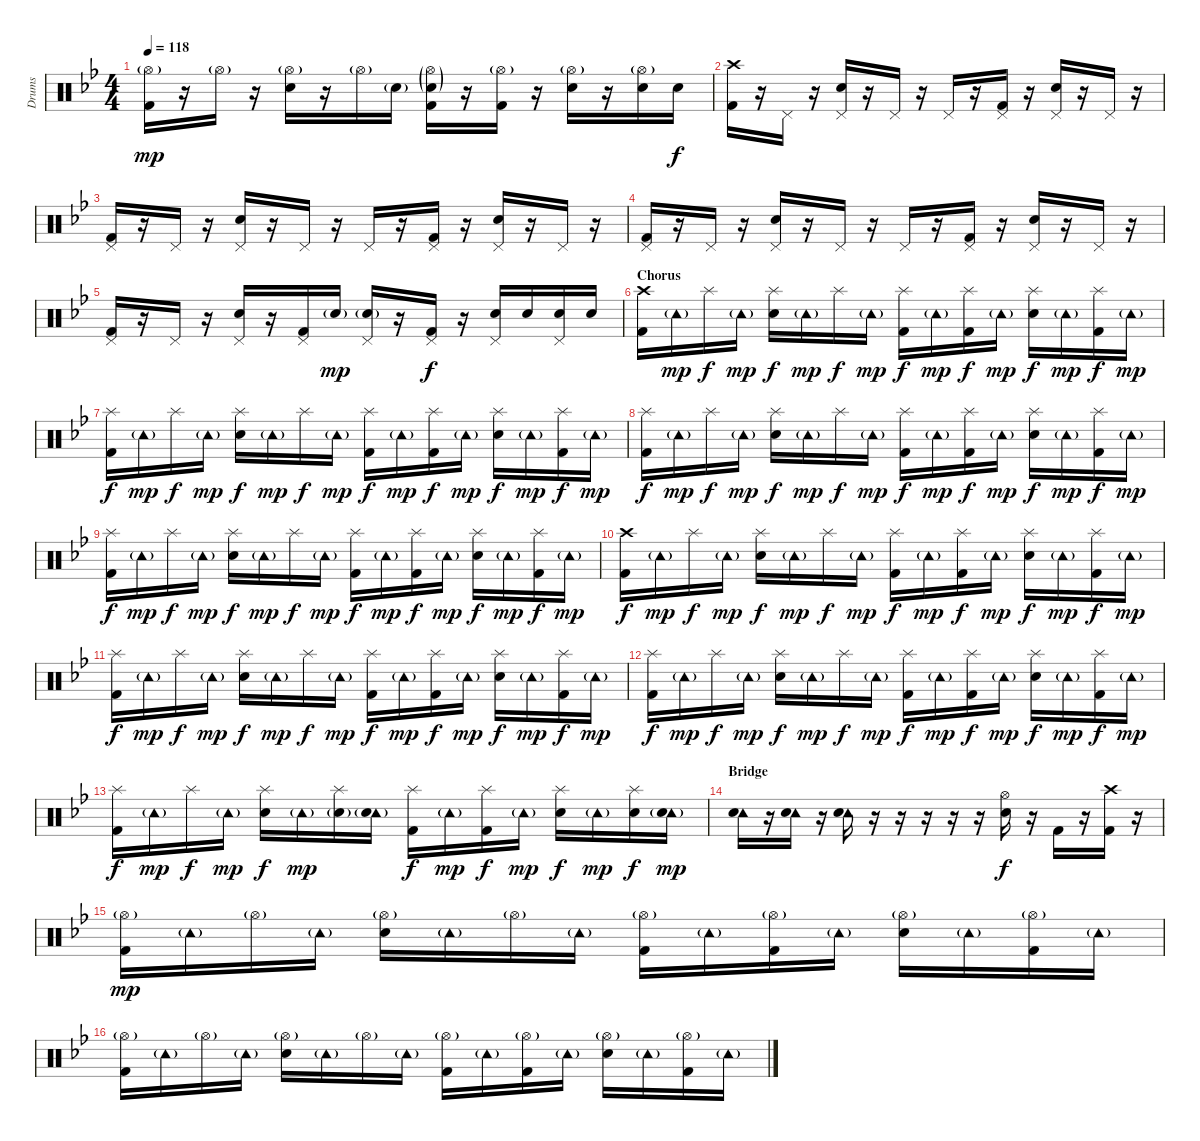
\track ("Drums" "Drums") {instrument percussion}
\staff {score}
\articulation defaults
\ts (4 4)
\tempo 118
\clef neutral
\ks bb
("Hi-Hat (open)"{g} "Kick (hit) 2").16{dy mp} r.16 "Hi-Hat (open)"{g}.16 r.16 ("Hi-Hat (open)"{g} "Electric Snare (hit)").16 r.16 "Hi-Hat (open)"{g}.16 "Electric Snare (hit)"{g}.16 ("Hi-Hat (open)"{g} "Electric Snare (hit)"{g} "Kick (hit) 2").16 r.16 ("Hi-Hat (open)"{g} "Kick (hit) 2").16 r.16 ("Hi-Hat (open)"{g} "Electric Snare (hit)").16 r.16 ("Hi-Hat (open)"{g} "Electric Snare (hit)").16 "Electric Snare (hit)".16{dy f} |
("Crash high (hit)" "Kick (hit) 2").16 r.16 "Pedal Hi-Hat (hit)".16 r.16 ("Pedal Hi-Hat (hit)" "Electric Snare (hit)").16 r.16 "Pedal Hi-Hat (hit)".16 r.16 "Pedal Hi-Hat (hit)".16 r.16 ("Pedal Hi-Hat (hit)" "Kick (hit) 2").16 r.16 ("Pedal Hi-Hat (hit)" "Electric Snare (hit)").16 r.16 "Pedal Hi-Hat (hit)".16 r.16 |
("Pedal Hi-Hat (hit)" "Kick (hit) 2").16 r.16 "Pedal Hi-Hat (hit)".16 r.16 ("Pedal Hi-Hat (hit)" "Electric Snare (hit)").16 r.16 "Pedal Hi-Hat (hit)".16 r.16 "Pedal Hi-Hat (hit)".16 r.16 ("Pedal Hi-Hat (hit)" "Kick (hit) 2").16 r.16 ("Pedal Hi-Hat (hit)" "Electric Snare (hit)").16 r.16 "Pedal Hi-Hat (hit)".16 r.16 |
("Pedal Hi-Hat (hit)" "Kick (hit) 2").16 r.16 "Pedal Hi-Hat (hit)".16 r.16 ("Pedal Hi-Hat (hit)" "Electric Snare (hit)").16 r.16 "Pedal Hi-Hat (hit)".16 r.16 "Pedal Hi-Hat (hit)".16 r.16 ("Pedal Hi-Hat (hit)" "Kick (hit) 2").16 r.16 ("Pedal Hi-Hat (hit)" "Electric Snare (hit)").16 r.16 "Pedal Hi-Hat (hit)".16 r.16 |
("Pedal Hi-Hat (hit)" "Kick (hit) 2").16 r.16 "Pedal Hi-Hat (hit)".16 r.16 ("Pedal Hi-Hat (hit)" "Electric Snare (hit)").16 r.16 ("Pedal Hi-Hat (hit)" "Kick (hit) 2").16 "Electric Snare (hit)"{g}.16{dy mp} ("Pedal Hi-Hat (hit)" "Electric Snare (hit)"{g}).16 r.16 ("Pedal Hi-Hat (hit)" "Kick (hit) 2").16{dy f} r.16 ("Pedal Hi-Hat (hit)" "Electric Snare (hit)").16 "Electric Snare (hit)".16 ("Pedal Hi-Hat (hit)" "Electric Snare (hit)").16 "Electric Snare (hit)".16 |
\section ("" "Chorus")
("Crash high (hit)" "Kick (hit) 2").16 "Tambourine (hit)"{g}.16{dy mp} "Splash (hit)".16{dy f} "Tambourine (hit)"{g}.16{dy mp} ("Splash (hit)" "Electric Snare (hit)").16{dy f} "Tambourine (hit)"{g}.16{dy mp} "Splash (hit)".16{dy f} "Tambourine (hit)"{g}.16{dy mp} ("Splash (hit)" "Kick (hit) 2").16{dy f} "Tambourine (hit)"{g}.16{dy mp} ("Splash (hit)" "Kick (hit) 2").16{dy f} "Tambourine (hit)"{g}.16{dy mp} ("Splash (hit)" "Electric Snare (hit)").16{dy f} "Tambourine (hit)"{g}.16{dy mp} ("Splash (hit)" "Kick (hit) 2").16{dy f} "Tambourine (hit)"{g}.16{dy mp} |
("Splash (hit)" "Kick (hit) 2").16{dy f} "Tambourine (hit)"{g}.16{dy mp} "Splash (hit)".16{dy f} "Tambourine (hit)"{g}.16{dy mp} ("Splash (hit)" "Electric Snare (hit)").16{dy f} "Tambourine (hit)"{g}.16{dy mp} "Splash (hit)".16{dy f} "Tambourine (hit)"{g}.16{dy mp} ("Splash (hit)" "Kick (hit) 2").16{dy f} "Tambourine (hit)"{g}.16{dy mp} ("Splash (hit)" "Kick (hit) 2").16{dy f} "Tambourine (hit)"{g}.16{dy mp} ("Splash (hit)" "Electric Snare (hit)").16{dy f} "Tambourine (hit)"{g}.16{dy mp} ("Splash (hit)" "Kick (hit) 2").16{dy f} "Tambourine (hit)"{g}.16{dy mp} |
("Splash (hit)" "Kick (hit) 2").16{dy f} "Tambourine (hit)"{g}.16{dy mp} "Splash (hit)".16{dy f} "Tambourine (hit)"{g}.16{dy mp} ("Splash (hit)" "Electric Snare (hit)").16{dy f} "Tambourine (hit)"{g}.16{dy mp} "Splash (hit)".16{dy f} "Tambourine (hit)"{g}.16{dy mp} ("Splash (hit)" "Kick (hit) 2").16{dy f} "Tambourine (hit)"{g}.16{dy mp} ("Splash (hit)" "Kick (hit) 2").16{dy f} "Tambourine (hit)"{g}.16{dy mp} ("Splash (hit)" "Electric Snare (hit)").16{dy f} "Tambourine (hit)"{g}.16{dy mp} ("Splash (hit)" "Kick (hit) 2").16{dy f} "Tambourine (hit)"{g}.16{dy mp} |
("Splash (hit)" "Kick (hit) 2").16{dy f} "Tambourine (hit)"{g}.16{dy mp} "Splash (hit)".16{dy f} "Tambourine (hit)"{g}.16{dy mp} ("Splash (hit)" "Electric Snare (hit)").16{dy f} "Tambourine (hit)"{g}.16{dy mp} "Splash (hit)".16{dy f} "Tambourine (hit)"{g}.16{dy mp} ("Splash (hit)" "Kick (hit) 2").16{dy f} "Tambourine (hit)"{g}.16{dy mp} ("Splash (hit)" "Kick (hit) 2").16{dy f} "Tambourine (hit)"{g}.16{dy mp} ("Splash (hit)" "Electric Snare (hit)").16{dy f} "Tambourine (hit)"{g}.16{dy mp} ("Splash (hit)" "Kick (hit) 2").16{dy f} "Tambourine (hit)"{g}.16{dy mp} |
("Crash high (hit)" "Kick (hit) 2").16{dy f} "Tambourine (hit)"{g}.16{dy mp} "Splash (hit)".16{dy f} "Tambourine (hit)"{g}.16{dy mp} ("Splash (hit)" "Electric Snare (hit)").16{dy f} "Tambourine (hit)"{g}.16{dy mp} "Splash (hit)".16{dy f} "Tambourine (hit)"{g}.16{dy mp} ("Splash (hit)" "Kick (hit) 2").16{dy f} "Tambourine (hit)"{g}.16{dy mp} ("Splash (hit)" "Kick (hit) 2").16{dy f} "Tambourine (hit)"{g}.16{dy mp} ("Splash (hit)" "Electric Snare (hit)").16{dy f} "Tambourine (hit)"{g}.16{dy mp} ("Splash (hit)" "Kick (hit) 2").16{dy f} "Tambourine (hit)"{g}.16{dy mp} |
("Splash (hit)" "Kick (hit) 2").16{dy f} "Tambourine (hit)"{g}.16{dy mp} "Splash (hit)".16{dy f} "Tambourine (hit)"{g}.16{dy mp} ("Splash (hit)" "Electric Snare (hit)").16{dy f} "Tambourine (hit)"{g}.16{dy mp} "Splash (hit)".16{dy f} "Tambourine (hit)"{g}.16{dy mp} ("Splash (hit)" "Kick (hit) 2").16{dy f} "Tambourine (hit)"{g}.16{dy mp} ("Splash (hit)" "Kick (hit) 2").16{dy f} "Tambourine (hit)"{g}.16{dy mp} ("Splash (hit)" "Electric Snare (hit)").16{dy f} "Tambourine (hit)"{g}.16{dy mp} ("Splash (hit)" "Kick (hit) 2").16{dy f} "Tambourine (hit)"{g}.16{dy mp} |
("Splash (hit)" "Kick (hit) 2").16{dy f} "Tambourine (hit)"{g}.16{dy mp} "Splash (hit)".16{dy f} "Tambourine (hit)"{g}.16{dy mp} ("Splash (hit)" "Electric Snare (hit)").16{dy f} "Tambourine (hit)"{g}.16{dy mp} "Splash (hit)".16{dy f} "Tambourine (hit)"{g}.16{dy mp} ("Splash (hit)" "Kick (hit) 2").16{dy f} "Tambourine (hit)"{g}.16{dy mp} ("Splash (hit)" "Kick (hit) 2").16{dy f} "Tambourine (hit)"{g}.16{dy mp} ("Splash (hit)" "Electric Snare (hit)").16{dy f} "Tambourine (hit)"{g}.16{dy mp} ("Splash (hit)" "Kick (hit) 2").16{dy f} "Tambourine (hit)"{g}.16{dy mp} |
("Splash (hit)" "Kick (hit) 2").16{dy f} "Tambourine (hit)"{g}.16{dy mp} "Splash (hit)".16{dy f} "Tambourine (hit)"{g}.16{dy mp} ("Splash (hit)" "Electric Snare (hit)").16{dy f} "Tambourine (hit)"{g}.16{dy mp} ("Splash (hit)" "Electric Snare (hit)"{g}).16 ("Tambourine (hit)"{g} "Electric Snare (hit)"{g}).16 ("Splash (hit)" "Kick (hit) 2").16{dy f} "Tambourine (hit)"{g}.16{dy mp} ("Splash (hit)" "Kick (hit) 2").16{dy f} "Tambourine (hit)"{g}.16{dy mp} ("Splash (hit)" "Electric Snare (hit)").16{dy f} "Tambourine (hit)"{g}.16{dy mp} ("Splash (hit)" "Electric Snare (hit)").16{dy f} ("Tambourine (hit)"{g} "Electric Snare (hit)").16{dy mp} |
\section ("" "Bridge")
("Tambourine (hit)" "Electric Snare (hit)").16 r.16 ("Tambourine (hit)" "Electric Snare (hit)").16 r.16 ("Tambourine (hit)" "Electric Snare (hit)").16 r.16 r.16 r.16 r.16 r.16 ("Hi-Hat (open)" "Electric Snare (hit)").16{dy f} r.16 "Kick (hit) 2".16 r.16 ("Crash high (hit)" "Kick (hit) 2").16 r.16 |
("Hi-Hat (open)"{g} "Kick (hit) 2").16{dy mp} "Tambourine (hit)"{g}.16 "Hi-Hat (open)"{g}.16 "Tambourine (hit)"{g}.16 ("Hi-Hat (open)"{g} "Electric Snare (hit)").16 "Tambourine (hit)"{g}.16 "Hi-Hat (open)"{g}.16 "Tambourine (hit)"{g}.16 ("Hi-Hat (open)"{g} "Kick (hit) 2").16 "Tambourine (hit)"{g}.16 ("Hi-Hat (open)"{g} "Kick (hit) 2").16 "Tambourine (hit)"{g}.16 ("Hi-Hat (open)"{g} "Electric Snare (hit)").16 "Tambourine (hit)"{g}.16 ("Hi-Hat (open)"{g} "Kick (hit) 2").16 "Tambourine (hit)"{g}.16 |
("Hi-Hat (open)"{g} "Kick (hit) 2").16 "Tambourine (hit)"{g}.16 "Hi-Hat (open)"{g}.16 "Tambourine (hit)"{g}.16 ("Hi-Hat (open)"{g} "Electric Snare (hit)").16 "Tambourine (hit)"{g}.16 "Hi-Hat (open)"{g}.16 "Tambourine (hit)"{g}.16 ("Hi-Hat (open)"{g} "Kick (hit) 2").16 "Tambourine (hit)"{g}.16 ("Hi-Hat (open)"{g} "Kick (hit) 2").16 "Tambourine (hit)"{g}.16 ("Hi-Hat (open)"{g} "Electric Snare (hit)").16 "Tambourine (hit)"{g}.16 ("Hi-Hat (open)"{g} "Kick (hit) 2").16 "Tambourine (hit)"{g}.16
